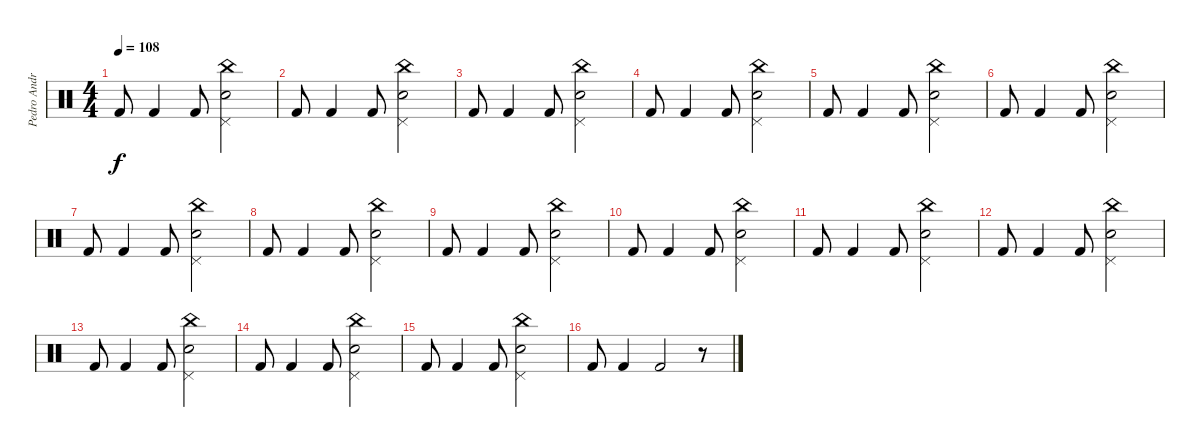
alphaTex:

\track ("Pedro Andreu" "Pedro Andr") {instrument percussion}
\staff {score}
\articulation defaults
\ts (4 4)
\tempo 108
\clef neutral
\ks c "Kick (hit) 2".8{dy f} "Kick (hit) 2".4 "Kick (hit) 2".8
("Snare (hit) 2" "Pedal Hi-Hat (hit)" "China (hit)").2 |
"Kick (hit) 2".8 "Kick (hit) 2".4 "Kick (hit) 2".8 ("Snare (hit) 2" "Pedal Hi-Hat (hit)" "China (hit)").2 |
"Kick (hit) 2".8 "Kick (hit) 2".4 "Kick (hit) 2".8 ("Snare (hit) 2" "Pedal Hi-Hat (hit)" "China (hit)").2 |
"Kick (hit) 2".8 "Kick (hit) 2".4 "Kick (hit) 2".8 ("Snare (hit) 2" "Pedal Hi-Hat (hit)" "China (hit)").2 |
"Kick (hit) 2".8 "Kick (hit) 2".4 "Kick (hit) 2".8 ("Snare (hit) 2" "Pedal Hi-Hat (hit)" "China (hit)").2 |
"Kick (hit) 2".8 "Kick (hit) 2".4 "Kick (hit) 2".8 ("Snare (hit) 2" "Pedal Hi-Hat (hit)" "China (hit)").2 |
"Kick (hit) 2".8 "Kick (hit) 2".4 "Kick (hit) 2".8 ("Snare (hit) 2" "Pedal Hi-Hat (hit)" "China (hit)").2 |
"Kick (hit) 2".8 "Kick (hit) 2".4 "Kick (hit) 2".8 ("Snare (hit) 2" "Pedal Hi-Hat (hit)" "China (hit)").2 |
"Kick (hit) 2".8 "Kick (hit) 2".4 "Kick (hit) 2".8 ("Snare (hit) 2" "Pedal Hi-Hat (hit)" "China (hit)").2 |
"Kick (hit) 2".8 "Kick (hit) 2".4 "Kick (hit) 2".8 ("Snare (hit) 2" "Pedal Hi-Hat (hit)" "China (hit)").2 |
"Kick (hit) 2".8 "Kick (hit) 2".4 "Kick (hit) 2".8 ("Snare (hit) 2" "Pedal Hi-Hat (hit)" "China (hit)").2 |
"Kick (hit) 2".8 "Kick (hit) 2".4 "Kick (hit) 2".8 ("Snare (hit) 2" "Pedal Hi-Hat (hit)" "China (hit)").2 |
"Kick (hit) 2".8 "Kick (hit) 2".4 "Kick (hit) 2".8 ("Snare (hit) 2" "Pedal Hi-Hat (hit)" "China (hit)").2 |
"Kick (hit) 2".8 "Kick (hit) 2".4 "Kick (hit) 2".8 ("Snare (hit) 2" "Pedal Hi-Hat (hit)" "China (hit)").2 |
"Kick (hit) 2".8 "Kick (hit) 2".4 "Kick (hit) 2".8 ("Snare (hit) 2" "Pedal Hi-Hat (hit)" "China (hit)").2 |
"Kick (hit) 2".8 "Kick (hit) 2".4 "Kick (hit) 2".2 r.8
